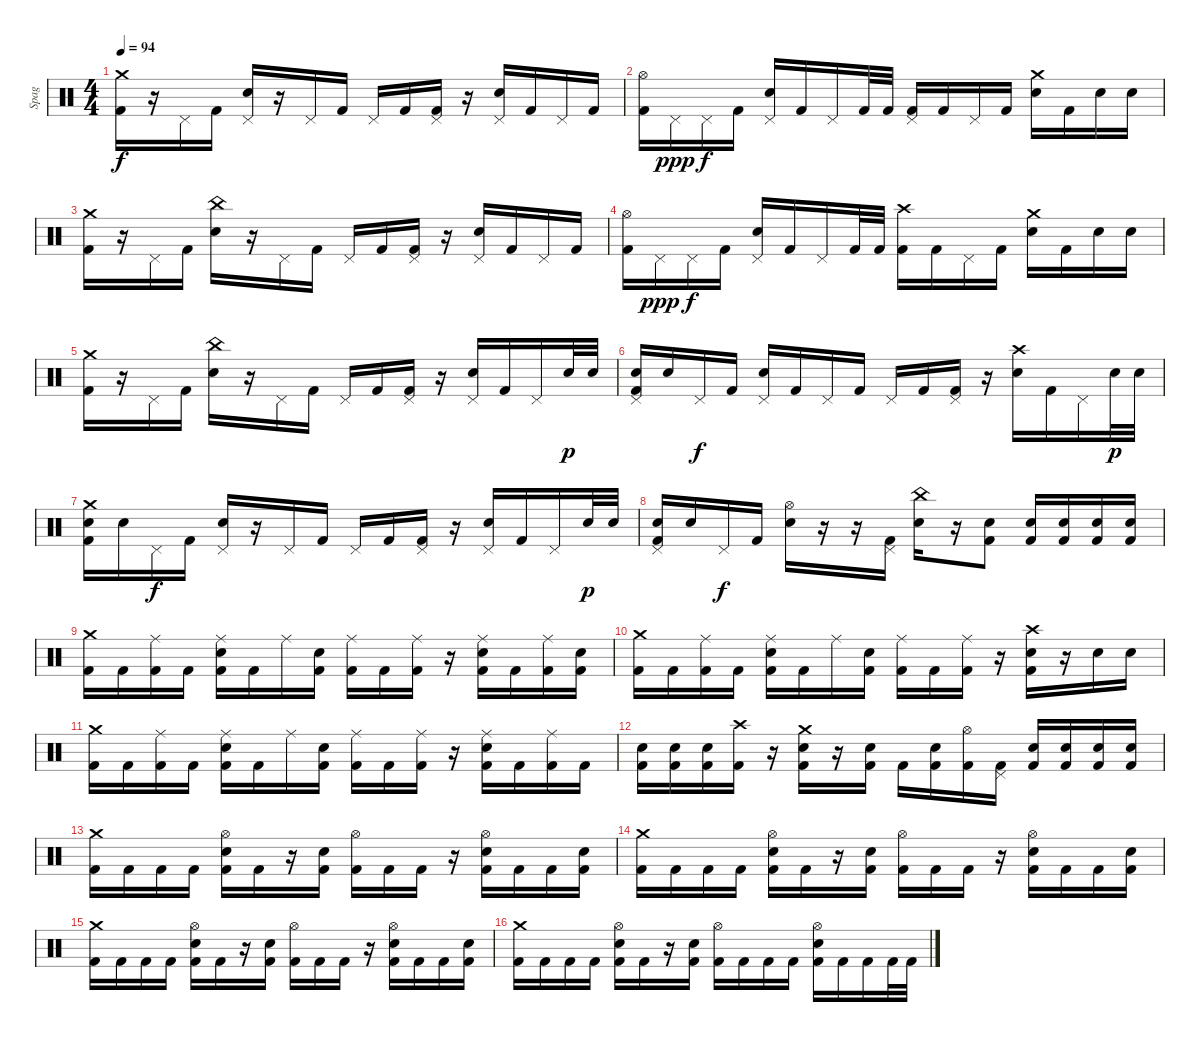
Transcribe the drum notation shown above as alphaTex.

\track ("Spag" "Spag") {instrument percussion}
\staff {score}
\articulation defaults
\ts (4 4)
\tempo 94
\clef neutral
\ks c
("Crash medium (hit)" "Kick (hit) 2").16{dy f} r.16 "Pedal Hi-Hat (hit)".16 "Kick (hit) 2".16 ("Pedal Hi-Hat (hit)" "Electric Snare (hit)").16 r.16 "Pedal Hi-Hat (hit)".16 "Kick (hit) 2".16 "Pedal Hi-Hat (hit)".16 "Kick (hit) 2".16 ("Pedal Hi-Hat (hit)" "Kick (hit) 2").16 r.16 ("Pedal Hi-Hat (hit)" "Electric Snare (hit)").16 "Kick (hit) 2".16 "Pedal Hi-Hat (hit)".16 "Kick (hit) 2".16 |
("Hi-Hat (open)" "Kick (hit) 2").16 "Pedal Hi-Hat (hit)".16{dy ppp} "Pedal Hi-Hat (hit)".16{dy f} "Kick (hit) 2".16 ("Pedal Hi-Hat (hit)" "Electric Snare (hit)").16 "Kick (hit) 2".16 "Pedal Hi-Hat (hit)".16 "Kick (hit) 2".32 "Kick (hit) 2".32 ("Pedal Hi-Hat (hit)" "Kick (hit) 2").16 "Kick (hit) 2".16 "Pedal Hi-Hat (hit)".16 "Kick (hit) 2".16 ("Crash medium (hit)" "Electric Snare (hit)").16 "Kick (hit) 2".16 "Electric Snare (hit)".16 "Electric Snare (hit)".16 |
("Crash medium (hit)" "Kick (hit) 2").16 r.16 "Pedal Hi-Hat (hit)".16 "Kick (hit) 2".16 ("China (hit)" "Electric Snare (hit)").16 r.16 "Pedal Hi-Hat (hit)".16 "Kick (hit) 2".16 "Pedal Hi-Hat (hit)".16 "Kick (hit) 2".16 ("Pedal Hi-Hat (hit)" "Kick (hit) 2").16 r.16 ("Pedal Hi-Hat (hit)" "Electric Snare (hit)").16 "Kick (hit) 2".16 "Pedal Hi-Hat (hit)".16 "Kick (hit) 2".16 |
("Hi-Hat (open)" "Kick (hit) 2").16 "Pedal Hi-Hat (hit)".16{dy ppp} "Pedal Hi-Hat (hit)".16{dy f} "Kick (hit) 2".16 ("Pedal Hi-Hat (hit)" "Electric Snare (hit)").16 "Kick (hit) 2".16 "Pedal Hi-Hat (hit)".16 "Kick (hit) 2".32 "Kick (hit) 2".32 ("Crash high (hit)" "Kick (hit) 2").16 "Kick (hit) 2".16 "Pedal Hi-Hat (hit)".16 "Kick (hit) 2".16 ("Crash medium (hit)" "Electric Snare (hit)").16 "Kick (hit) 2".16 "Electric Snare (hit)".16 "Electric Snare (hit)".16 |
("Crash medium (hit)" "Kick (hit) 2").16 r.16 "Pedal Hi-Hat (hit)".16 "Kick (hit) 2".16 ("China (hit)" "Electric Snare (hit)").16 r.16 "Pedal Hi-Hat (hit)".16 "Kick (hit) 2".16 "Pedal Hi-Hat (hit)".16 "Kick (hit) 2".16 ("Pedal Hi-Hat (hit)" "Kick (hit) 2").16 r.16 ("Pedal Hi-Hat (hit)" "Electric Snare (hit)").16 "Kick (hit) 2".16 "Pedal Hi-Hat (hit)".16 "Electric Snare (hit)".32{dy p} "Electric Snare (hit)".32 |
("Pedal Hi-Hat (hit)" "Electric Snare (hit)" "Kick (hit) 2").16 "Electric Snare (hit)".16 "Pedal Hi-Hat (hit)".16{dy f} "Kick (hit) 2".16 ("Pedal Hi-Hat (hit)" "Electric Snare (hit)").16 "Kick (hit) 2".16 "Pedal Hi-Hat (hit)".16 "Kick (hit) 2".16 "Pedal Hi-Hat (hit)".16 "Kick (hit) 2".16 ("Pedal Hi-Hat (hit)" "Kick (hit) 2").16 r.16 ("Crash high (hit)" "Electric Snare (hit)").16 "Kick (hit) 2".16 "Pedal Hi-Hat (hit)".16 "Electric Snare (hit)".32{dy p} "Electric Snare (hit)".32 |
("Crash medium (hit)" "Electric Snare (hit)" "Kick (hit) 2").16 "Electric Snare (hit)".16 "Pedal Hi-Hat (hit)".16{dy f} "Kick (hit) 2".16 ("Pedal Hi-Hat (hit)" "Electric Snare (hit)").16 r.16 "Pedal Hi-Hat (hit)".16 "Kick (hit) 2".16 "Pedal Hi-Hat (hit)".16 "Kick (hit) 2".16 ("Pedal Hi-Hat (hit)" "Kick (hit) 2").16 r.16 ("Pedal Hi-Hat (hit)" "Electric Snare (hit)").16 "Kick (hit) 2".16 "Pedal Hi-Hat (hit)".16 "Electric Snare (hit)".32{dy p} "Electric Snare (hit)".32 |
("Pedal Hi-Hat (hit)" "Electric Snare (hit)" "Kick (hit) 2").16 "Electric Snare (hit)".16 "Pedal Hi-Hat (hit)".16{dy f} "Kick (hit) 2".16 ("Hi-Hat (open)" "Electric Snare (hit)").16 r.16 r.16 ("Pedal Hi-Hat (hit)" "Kick (hit) 2").16 ("China (hit)" "Electric Snare (hit)").16 r.16 ("Electric Snare (hit)" "Kick (hit) 2").8 ("Electric Snare (hit)" "Kick (hit) 2").16 ("Electric Snare (hit)" "Kick (hit) 2").16 ("Electric Snare (hit)" "Kick (hit) 2").16 ("Electric Snare (hit)" "Kick (hit) 2").16 |
("Crash medium (hit)" "Kick (hit) 2").16 "Kick (hit) 2".16 ("Ride (middle)" "Kick (hit) 2").16 "Kick (hit) 2".16 ("Ride (middle)" "Electric Snare (hit)" "Kick (hit) 2").16 "Kick (hit) 2".16 "Ride (middle)".16 ("Electric Snare (hit)" "Kick (hit) 2").16 ("Ride (middle)" "Kick (hit) 2").16 "Kick (hit) 2".16 ("Ride (middle)" "Kick (hit) 2").16 r.16 ("Ride (middle)" "Electric Snare (hit)" "Kick (hit) 2").16 "Kick (hit) 2".16 ("Ride (middle)" "Kick (hit) 2").16 ("Electric Snare (hit)" "Kick (hit) 2").16 |
("Crash medium (hit)" "Kick (hit) 2").16 "Kick (hit) 2".16 ("Ride (middle)" "Kick (hit) 2").16 "Kick (hit) 2".16 ("Ride (middle)" "Electric Snare (hit)" "Kick (hit) 2").16 "Kick (hit) 2".16 "Ride (middle)".16 ("Electric Snare (hit)" "Kick (hit) 2").16 ("Ride (middle)" "Kick (hit) 2").16 "Kick (hit) 2".16 ("Ride (middle)" "Kick (hit) 2").16 r.16 ("Crash high (hit)" "Electric Snare (hit)" "Kick (hit) 2").16 r.16 "Electric Snare (hit)".16 "Electric Snare (hit)".16 |
("Crash medium (hit)" "Kick (hit) 2").16 "Kick (hit) 2".16 ("Ride (middle)" "Kick (hit) 2").16 "Kick (hit) 2".16 ("Ride (middle)" "Electric Snare (hit)" "Kick (hit) 2").16 "Kick (hit) 2".16 "Ride (middle)".16 ("Electric Snare (hit)" "Kick (hit) 2").16 ("Ride (middle)" "Kick (hit) 2").16 "Kick (hit) 2".16 ("Ride (middle)" "Kick (hit) 2").16 r.16 ("Ride (middle)" "Electric Snare (hit)" "Kick (hit) 2").16 "Kick (hit) 2".16 ("Ride (middle)" "Kick (hit) 2").16 "Kick (hit) 2".16 |
("Electric Snare (hit)" "Kick (hit) 2").16 ("Electric Snare (hit)" "Kick (hit) 2").16 ("Electric Snare (hit)" "Kick (hit) 2").16 ("Crash high (hit)" "Kick (hit) 2").16 r.16 ("Crash medium (hit)" "Electric Snare (hit)" "Kick (hit) 2").16 r.16 ("Electric Snare (hit)" "Kick (hit) 2").16 "Kick (hit) 2".16 ("Electric Snare (hit)" "Kick (hit) 2").16 ("Hi-Hat (open)" "Kick (hit) 2").16 ("Pedal Hi-Hat (hit)" "Kick (hit) 2").16 ("Electric Snare (hit)" "Kick (hit) 2").16 ("Electric Snare (hit)" "Kick (hit) 2").16 ("Electric Snare (hit)" "Kick (hit) 2").16 ("Electric Snare (hit)" "Kick (hit) 2").16 |
("Crash medium (hit)" "Kick (hit) 2").16 "Kick (hit) 2".16 "Kick (hit) 2".16 "Kick (hit) 2".16 ("Hi-Hat (open)" "Electric Snare (hit)" "Kick (hit) 2").16 "Kick (hit) 2".16 r.16 ("Electric Snare (hit)" "Kick (hit) 2").16 ("Hi-Hat (open)" "Kick (hit) 2").16 "Kick (hit) 2".16 "Kick (hit) 2".16 r.16 ("Hi-Hat (open)" "Electric Snare (hit)" "Kick (hit) 2").16 "Kick (hit) 2".16 "Kick (hit) 2".16 ("Electric Snare (hit)" "Kick (hit) 2").16 |
("Crash medium (hit)" "Kick (hit) 2").16 "Kick (hit) 2".16 "Kick (hit) 2".16 "Kick (hit) 2".16 ("Hi-Hat (open)" "Electric Snare (hit)" "Kick (hit) 2").16 "Kick (hit) 2".16 r.16 ("Electric Snare (hit)" "Kick (hit) 2").16 ("Hi-Hat (open)" "Kick (hit) 2").16 "Kick (hit) 2".16 "Kick (hit) 2".16 r.16 ("Hi-Hat (open)" "Electric Snare (hit)" "Kick (hit) 2").16 "Kick (hit) 2".16 "Kick (hit) 2".16 ("Electric Snare (hit)" "Kick (hit) 2").16 |
("Crash medium (hit)" "Kick (hit) 2").16 "Kick (hit) 2".16 "Kick (hit) 2".16 "Kick (hit) 2".16 ("Hi-Hat (open)" "Electric Snare (hit)" "Kick (hit) 2").16 "Kick (hit) 2".16 r.16 ("Electric Snare (hit)" "Kick (hit) 2").16 ("Hi-Hat (open)" "Kick (hit) 2").16 "Kick (hit) 2".16 "Kick (hit) 2".16 r.16 ("Hi-Hat (open)" "Electric Snare (hit)" "Kick (hit) 2").16 "Kick (hit) 2".16 "Kick (hit) 2".16 ("Electric Snare (hit)" "Kick (hit) 2").16 |
("Crash medium (hit)" "Kick (hit) 2").16 "Kick (hit) 2".16 "Kick (hit) 2".16 "Kick (hit) 2".16 ("Hi-Hat (open)" "Electric Snare (hit)" "Kick (hit) 2").16 "Kick (hit) 2".16 r.16 ("Electric Snare (hit)" "Kick (hit) 2").16 ("Hi-Hat (open)" "Kick (hit) 2").16 "Kick (hit) 2".16 "Kick (hit) 2".16 "Kick (hit) 2".16 ("Hi-Hat (open)" "Electric Snare (hit)" "Kick (hit) 2").16 "Kick (hit) 2".16 "Kick (hit) 2".16 "Kick (hit) 2".32 "Kick (hit) 2".32
